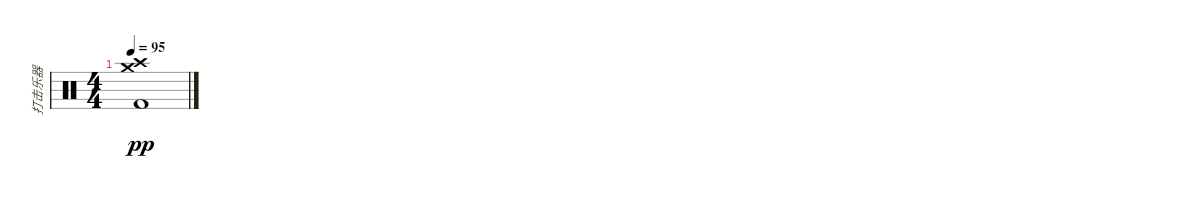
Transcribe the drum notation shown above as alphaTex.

\track ("打击乐器" "打击乐器") {instrument percussion}
\staff {score}
\articulation defaults
\ts (4 4)
\tempo 95
\clef neutral
\ks c
("Crash medium (hit)" "Crash high (hit)" "Kick (hit) 2").1{dy pp}
